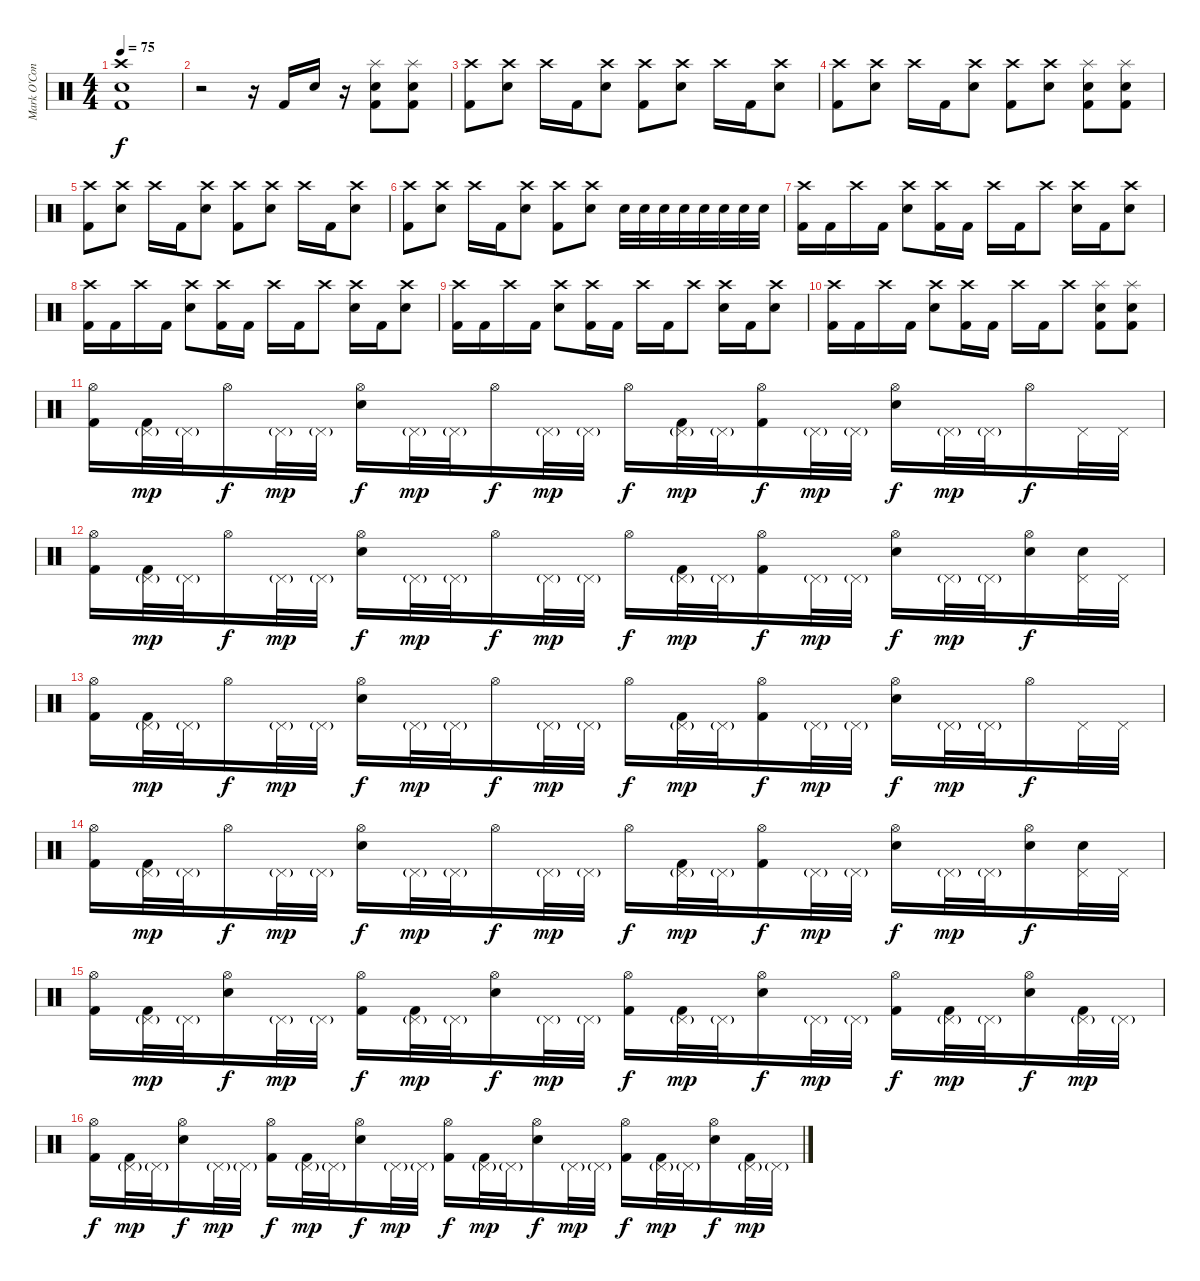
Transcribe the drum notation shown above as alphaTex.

\track ("Mark O'Connell (Drums)" "Mark O'Con") {instrument percussion}
\staff {score}
\articulation defaults
\ts (4 4)
\tempo 75
\clef neutral
\ks c
("Crash high (hit)" "Electric Snare (hit)" "Kick (hit) 2").1{dy f} |
r.2 r.16 "Kick (hit) 2".16 "Electric Snare (hit)".16 r.16 ("Splash (hit)" "Electric Snare (hit)" "Kick (hit) 2").8 ("Splash (hit)" "Electric Snare (hit)" "Kick (hit) 2").8 |
("Crash high (hit)" "Kick (hit) 2").8 ("Crash high (hit)" "Electric Snare (hit)").8 "Crash high (hit)".16 "Kick (hit) 2".16 ("Crash high (hit)" "Electric Snare (hit)").8 ("Crash high (hit)" "Kick (hit) 2").8 ("Crash high (hit)" "Electric Snare (hit)").8 "Crash high (hit)".16 "Kick (hit) 2".16 ("Crash high (hit)" "Electric Snare (hit)").8 |
("Crash high (hit)" "Kick (hit) 2").8 ("Crash high (hit)" "Electric Snare (hit)").8 "Crash high (hit)".16 "Kick (hit) 2".16 ("Crash high (hit)" "Electric Snare (hit)").8 ("Crash high (hit)" "Kick (hit) 2").8 ("Crash high (hit)" "Electric Snare (hit)").8 ("Splash (hit)" "Electric Snare (hit)" "Kick (hit) 2").8 ("Splash (hit)" "Electric Snare (hit)" "Kick (hit) 2").8 |
("Crash high (hit)" "Kick (hit) 2").8 ("Crash high (hit)" "Electric Snare (hit)").8 "Crash high (hit)".16 "Kick (hit) 2".16 ("Crash high (hit)" "Electric Snare (hit)").8 ("Crash high (hit)" "Kick (hit) 2").8 ("Crash high (hit)" "Electric Snare (hit)").8 "Crash high (hit)".16 "Kick (hit) 2".16 ("Crash high (hit)" "Electric Snare (hit)").8 |
("Crash high (hit)" "Kick (hit) 2").8 ("Crash high (hit)" "Electric Snare (hit)").8 "Crash high (hit)".16 "Kick (hit) 2".16 ("Crash high (hit)" "Electric Snare (hit)").8 ("Crash high (hit)" "Kick (hit) 2").8 ("Crash high (hit)" "Electric Snare (hit)").8 "Electric Snare (hit)".32 "Electric Snare (hit)".32 "Electric Snare (hit)".32 "Electric Snare (hit)".32 "Electric Snare (hit)".32 "Electric Snare (hit)".32 "Electric Snare (hit)".32 "Electric Snare (hit)".32 |
("Crash high (hit)" "Kick (hit) 2").16 "Kick (hit) 2".16 "Crash high (hit)".16 "Kick (hit) 2".16 ("Crash high (hit)" "Electric Snare (hit)").8 ("Crash high (hit)" "Kick (hit) 2").16 "Kick (hit) 2".16 "Crash high (hit)".16 "Kick (hit) 2".16 "Crash high (hit)".8 ("Crash high (hit)" "Electric Snare (hit)").16 "Kick (hit) 2".16 ("Crash high (hit)" "Electric Snare (hit)").8 |
("Crash high (hit)" "Kick (hit) 2").16 "Kick (hit) 2".16 "Crash high (hit)".16 "Kick (hit) 2".16 ("Crash high (hit)" "Electric Snare (hit)").8 ("Crash high (hit)" "Kick (hit) 2").16 "Kick (hit) 2".16 "Crash high (hit)".16 "Kick (hit) 2".16 "Crash high (hit)".8 ("Crash high (hit)" "Electric Snare (hit)").16 "Kick (hit) 2".16 ("Crash high (hit)" "Electric Snare (hit)").8 |
("Crash high (hit)" "Kick (hit) 2").16 "Kick (hit) 2".16 "Crash high (hit)".16 "Kick (hit) 2".16 ("Crash high (hit)" "Electric Snare (hit)").8 ("Crash high (hit)" "Kick (hit) 2").16 "Kick (hit) 2".16 "Crash high (hit)".16 "Kick (hit) 2".16 "Crash high (hit)".8 ("Crash high (hit)" "Electric Snare (hit)").16 "Kick (hit) 2".16 ("Crash high (hit)" "Electric Snare (hit)").8 |
("Crash high (hit)" "Kick (hit) 2").16 "Kick (hit) 2".16 "Crash high (hit)".16 "Kick (hit) 2".16 ("Crash high (hit)" "Electric Snare (hit)").8 ("Crash high (hit)" "Kick (hit) 2").16 "Kick (hit) 2".16 "Crash high (hit)".16 "Kick (hit) 2".16 "Crash high (hit)".8 ("Splash (hit)" "Electric Snare (hit)" "Kick (hit) 2").8 ("Splash (hit)" "Electric Snare (hit)" "Kick (hit) 2").8 |
("Hi-Hat (open)" "Kick (hit) 2").16 ("Pedal Hi-Hat (hit)"{g} "Kick (hit) 2").32{dy mp} "Pedal Hi-Hat (hit)"{g}.32 "Hi-Hat (open)".16{dy f} "Pedal Hi-Hat (hit)"{g}.32{dy mp} "Pedal Hi-Hat (hit)"{g}.32 ("Hi-Hat (open)" "Electric Snare (hit)").16{dy f} "Pedal Hi-Hat (hit)"{g}.32{dy mp} "Pedal Hi-Hat (hit)"{g}.32 "Hi-Hat (open)".16{dy f} "Pedal Hi-Hat (hit)"{g}.32{dy mp} "Pedal Hi-Hat (hit)"{g}.32 "Hi-Hat (open)".16{dy f} ("Pedal Hi-Hat (hit)"{g} "Kick (hit) 2").32{dy mp} "Pedal Hi-Hat (hit)"{g}.32 ("Hi-Hat (open)" "Kick (hit) 2").16{dy f} "Pedal Hi-Hat (hit)"{g}.32{dy mp} "Pedal Hi-Hat (hit)"{g}.32 ("Hi-Hat (open)" "Electric Snare (hit)").16{dy f} "Pedal Hi-Hat (hit)"{g}.32{dy mp} "Pedal Hi-Hat (hit)"{g}.32 "Hi-Hat (open)".16{dy f} "Pedal Hi-Hat (hit)".32 "Pedal Hi-Hat (hit)".32 |
("Hi-Hat (open)" "Kick (hit) 2").16 ("Pedal Hi-Hat (hit)"{g} "Kick (hit) 2").32{dy mp} "Pedal Hi-Hat (hit)"{g}.32 "Hi-Hat (open)".16{dy f} "Pedal Hi-Hat (hit)"{g}.32{dy mp} "Pedal Hi-Hat (hit)"{g}.32 ("Hi-Hat (open)" "Electric Snare (hit)").16{dy f} "Pedal Hi-Hat (hit)"{g}.32{dy mp} "Pedal Hi-Hat (hit)"{g}.32 "Hi-Hat (open)".16{dy f} "Pedal Hi-Hat (hit)"{g}.32{dy mp} "Pedal Hi-Hat (hit)"{g}.32 "Hi-Hat (open)".16{dy f} ("Pedal Hi-Hat (hit)"{g} "Kick (hit) 2").32{dy mp} "Pedal Hi-Hat (hit)"{g}.32 ("Hi-Hat (open)" "Kick (hit) 2").16{dy f} "Pedal Hi-Hat (hit)"{g}.32{dy mp} "Pedal Hi-Hat (hit)"{g}.32 ("Hi-Hat (open)" "Electric Snare (hit)").16{dy f} "Pedal Hi-Hat (hit)"{g}.32{dy mp} "Pedal Hi-Hat (hit)"{g}.32 ("Hi-Hat (open)" "Electric Snare (hit)").16{dy f} ("Pedal Hi-Hat (hit)" "Electric Snare (hit)").32 "Pedal Hi-Hat (hit)".32 |
("Hi-Hat (open)" "Kick (hit) 2").16 ("Pedal Hi-Hat (hit)"{g} "Kick (hit) 2").32{dy mp} "Pedal Hi-Hat (hit)"{g}.32 "Hi-Hat (open)".16{dy f} "Pedal Hi-Hat (hit)"{g}.32{dy mp} "Pedal Hi-Hat (hit)"{g}.32 ("Hi-Hat (open)" "Electric Snare (hit)").16{dy f} "Pedal Hi-Hat (hit)"{g}.32{dy mp} "Pedal Hi-Hat (hit)"{g}.32 "Hi-Hat (open)".16{dy f} "Pedal Hi-Hat (hit)"{g}.32{dy mp} "Pedal Hi-Hat (hit)"{g}.32 "Hi-Hat (open)".16{dy f} ("Pedal Hi-Hat (hit)"{g} "Kick (hit) 2").32{dy mp} "Pedal Hi-Hat (hit)"{g}.32 ("Hi-Hat (open)" "Kick (hit) 2").16{dy f} "Pedal Hi-Hat (hit)"{g}.32{dy mp} "Pedal Hi-Hat (hit)"{g}.32 ("Hi-Hat (open)" "Electric Snare (hit)").16{dy f} "Pedal Hi-Hat (hit)"{g}.32{dy mp} "Pedal Hi-Hat (hit)"{g}.32 "Hi-Hat (open)".16{dy f} "Pedal Hi-Hat (hit)".32 "Pedal Hi-Hat (hit)".32 |
("Hi-Hat (open)" "Kick (hit) 2").16 ("Pedal Hi-Hat (hit)"{g} "Kick (hit) 2").32{dy mp} "Pedal Hi-Hat (hit)"{g}.32 "Hi-Hat (open)".16{dy f} "Pedal Hi-Hat (hit)"{g}.32{dy mp} "Pedal Hi-Hat (hit)"{g}.32 ("Hi-Hat (open)" "Electric Snare (hit)").16{dy f} "Pedal Hi-Hat (hit)"{g}.32{dy mp} "Pedal Hi-Hat (hit)"{g}.32 "Hi-Hat (open)".16{dy f} "Pedal Hi-Hat (hit)"{g}.32{dy mp} "Pedal Hi-Hat (hit)"{g}.32 "Hi-Hat (open)".16{dy f} ("Pedal Hi-Hat (hit)"{g} "Kick (hit) 2").32{dy mp} "Pedal Hi-Hat (hit)"{g}.32 ("Hi-Hat (open)" "Kick (hit) 2").16{dy f} "Pedal Hi-Hat (hit)"{g}.32{dy mp} "Pedal Hi-Hat (hit)"{g}.32 ("Hi-Hat (open)" "Electric Snare (hit)").16{dy f} "Pedal Hi-Hat (hit)"{g}.32{dy mp} "Pedal Hi-Hat (hit)"{g}.32 ("Hi-Hat (open)" "Electric Snare (hit)").16{dy f} ("Pedal Hi-Hat (hit)" "Electric Snare (hit)").32 "Pedal Hi-Hat (hit)".32 |
("Hi-Hat (open)" "Kick (hit) 2").16 ("Pedal Hi-Hat (hit)"{g} "Kick (hit) 2").32{dy mp} "Pedal Hi-Hat (hit)"{g}.32 ("Hi-Hat (open)" "Electric Snare (hit)").16{dy f} "Pedal Hi-Hat (hit)"{g}.32{dy mp} "Pedal Hi-Hat (hit)"{g}.32 ("Hi-Hat (open)" "Kick (hit) 2").16{dy f} ("Pedal Hi-Hat (hit)"{g} "Kick (hit) 2").32{dy mp} "Pedal Hi-Hat (hit)"{g}.32 ("Hi-Hat (open)" "Electric Snare (hit)").16{dy f} "Pedal Hi-Hat (hit)"{g}.32{dy mp} "Pedal Hi-Hat (hit)"{g}.32 ("Hi-Hat (open)" "Kick (hit) 2").16{dy f} ("Pedal Hi-Hat (hit)"{g} "Kick (hit) 2").32{dy mp} "Pedal Hi-Hat (hit)"{g}.32 ("Hi-Hat (open)" "Electric Snare (hit)").16{dy f} "Pedal Hi-Hat (hit)"{g}.32{dy mp} "Pedal Hi-Hat (hit)"{g}.32 ("Hi-Hat (open)" "Kick (hit) 2").16{dy f} ("Pedal Hi-Hat (hit)"{g} "Kick (hit) 2").32{dy mp} "Pedal Hi-Hat (hit)"{g}.32 ("Hi-Hat (open)" "Electric Snare (hit)").16{dy f} ("Pedal Hi-Hat (hit)"{g} "Kick (hit) 2").32{dy mp} "Pedal Hi-Hat (hit)"{g}.32 |
("Hi-Hat (open)" "Kick (hit) 2").16{dy f} ("Pedal Hi-Hat (hit)"{g} "Kick (hit) 2").32{dy mp} "Pedal Hi-Hat (hit)"{g}.32 ("Hi-Hat (open)" "Electric Snare (hit)").16{dy f} "Pedal Hi-Hat (hit)"{g}.32{dy mp} "Pedal Hi-Hat (hit)"{g}.32 ("Hi-Hat (open)" "Kick (hit) 2").16{dy f} ("Pedal Hi-Hat (hit)"{g} "Kick (hit) 2").32{dy mp} "Pedal Hi-Hat (hit)"{g}.32 ("Hi-Hat (open)" "Electric Snare (hit)").16{dy f} "Pedal Hi-Hat (hit)"{g}.32{dy mp} "Pedal Hi-Hat (hit)"{g}.32 ("Hi-Hat (open)" "Kick (hit) 2").16{dy f} ("Pedal Hi-Hat (hit)"{g} "Kick (hit) 2").32{dy mp} "Pedal Hi-Hat (hit)"{g}.32 ("Hi-Hat (open)" "Electric Snare (hit)").16{dy f} "Pedal Hi-Hat (hit)"{g}.32{dy mp} "Pedal Hi-Hat (hit)"{g}.32 ("Hi-Hat (open)" "Kick (hit) 2").16{dy f} ("Pedal Hi-Hat (hit)"{g} "Kick (hit) 2").32{dy mp} "Pedal Hi-Hat (hit)"{g}.32 ("Hi-Hat (open)" "Electric Snare (hit)").16{dy f} ("Pedal Hi-Hat (hit)"{g} "Kick (hit) 2").32{dy mp} "Pedal Hi-Hat (hit)"{g}.32
